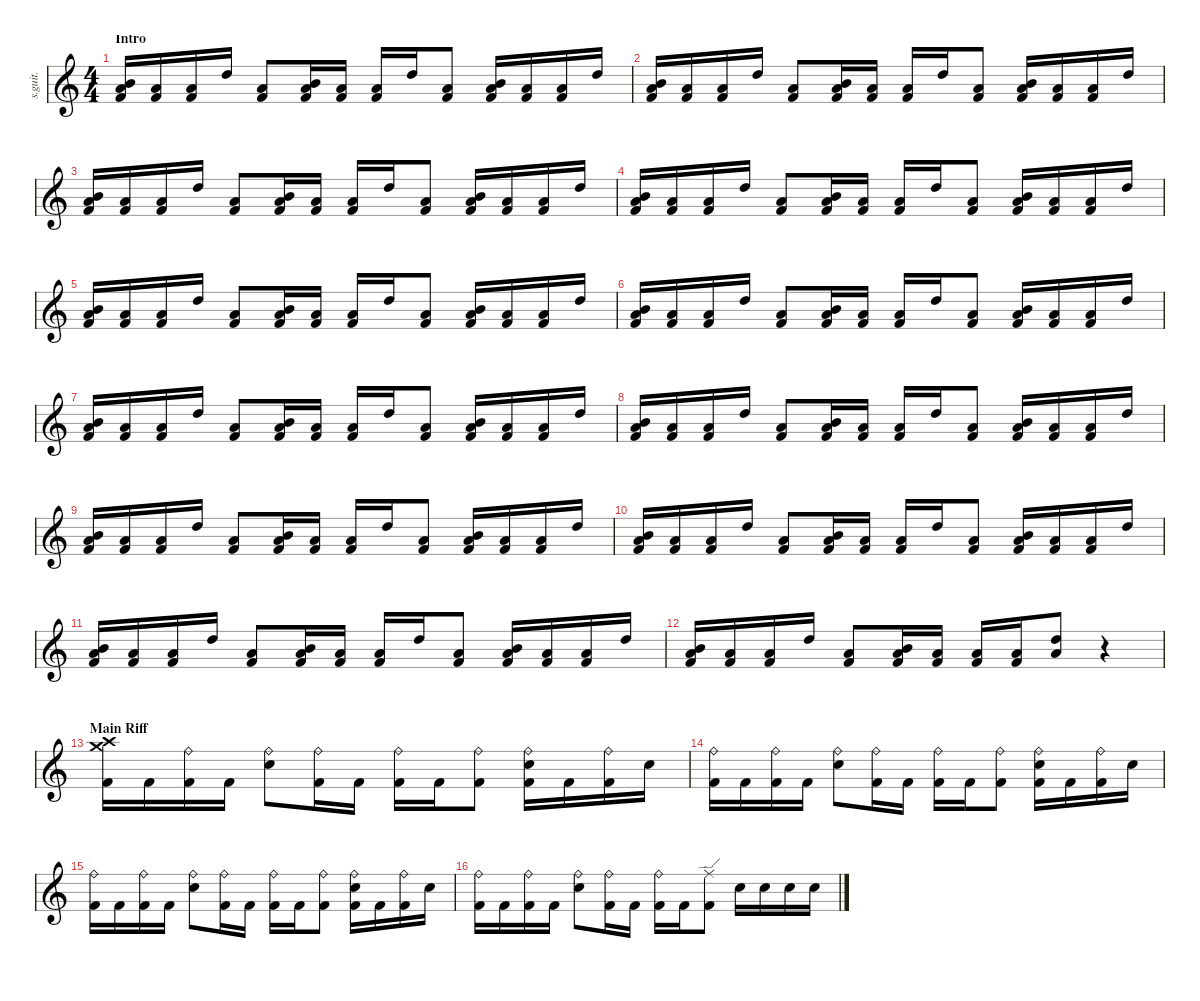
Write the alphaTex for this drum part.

\defaultSystemsLayout 4
\hideDynamics
\bracketExtendMode nobrackets
\track ("Mike Wengren" "s.guit.") {instrument percussion}
\staff {score}
\articulation defaults
\ts (4 4)
\beaming (8 2 2 2 2)
\section ("" "Intro")
\tempo (90 hide)
\clef g2
\ks c
("Kick (hit) 2" "Mid Tom (hit)" "Low Floor Tom (hit)").16{lyrics (0 "") lyrics (1 "") lyrics (2 "") lyrics (3 "") lyrics (4 "") dy ff} ("Kick (hit) 2" "Low Floor Tom (hit)").16{lyrics (0 "") lyrics (1 "") lyrics (2 "") lyrics (3 "") lyrics (4 "")} ("Kick (hit) 2" "Low Floor Tom (hit)").16{lyrics (0 "") lyrics (1 "") lyrics (2 "") lyrics (3 "") lyrics (4 "")} "High Tom (hit)".16{lyrics (0 "") lyrics (1 "") lyrics (2 "") lyrics (3 "") lyrics (4 "")} ("Kick (hit) 2" "Low Floor Tom (hit)").8{lyrics (0 "") lyrics (1 "") lyrics (2 "") lyrics (3 "") lyrics (4 "")} ("Kick (hit) 2" "Mid Tom (hit)" "Low Floor Tom (hit)").16{lyrics (0 "") lyrics (1 "") lyrics (2 "") lyrics (3 "") lyrics (4 "")} ("Kick (hit) 2" "Low Floor Tom (hit)").16{lyrics (0 "") lyrics (1 "") lyrics (2 "") lyrics (3 "") lyrics (4 "")} ("Kick (hit) 2" "Low Floor Tom (hit)").16{lyrics (0 "") lyrics (1 "") lyrics (2 "") lyrics (3 "") lyrics (4 "")} "High Tom (hit)".16{lyrics (0 "") lyrics (1 "") lyrics (2 "") lyrics (3 "") lyrics (4 "")} ("Kick (hit) 2" "Low Floor Tom (hit)").8{lyrics (0 "") lyrics (1 "") lyrics (2 "") lyrics (3 "") lyrics (4 "")} ("Kick (hit) 2" "Mid Tom (hit)" "Low Floor Tom (hit)").16{lyrics (0 "") lyrics (1 "") lyrics (2 "") lyrics (3 "") lyrics (4 "")} ("Kick (hit) 2" "Low Floor Tom (hit)").16{lyrics (0 "") lyrics (1 "") lyrics (2 "") lyrics (3 "") lyrics (4 "")} ("Kick (hit) 2" "Low Floor Tom (hit)").16{lyrics (0 "") lyrics (1 "") lyrics (2 "") lyrics (3 "") lyrics (4 "")} "High Tom (hit)".16{lyrics (0 "") lyrics (1 "") lyrics (2 "") lyrics (3 "") lyrics (4 "")} |
("Kick (hit) 2" "Mid Tom (hit)" "Low Floor Tom (hit)").16{lyrics (0 "") lyrics (1 "") lyrics (2 "") lyrics (3 "") lyrics (4 "")} ("Kick (hit) 2" "Low Floor Tom (hit)").16{lyrics (0 "") lyrics (1 "") lyrics (2 "") lyrics (3 "") lyrics (4 "")} ("Kick (hit) 2" "Low Floor Tom (hit)").16{lyrics (0 "") lyrics (1 "") lyrics (2 "") lyrics (3 "") lyrics (4 "")} "High Tom (hit)".16{lyrics (0 "") lyrics (1 "") lyrics (2 "") lyrics (3 "") lyrics (4 "")} ("Kick (hit) 2" "Low Floor Tom (hit)").8{lyrics (0 "") lyrics (1 "") lyrics (2 "") lyrics (3 "") lyrics (4 "")} ("Kick (hit) 2" "Mid Tom (hit)" "Low Floor Tom (hit)").16{lyrics (0 "") lyrics (1 "") lyrics (2 "") lyrics (3 "") lyrics (4 "")} ("Kick (hit) 2" "Low Floor Tom (hit)").16{lyrics (0 "") lyrics (1 "") lyrics (2 "") lyrics (3 "") lyrics (4 "")} ("Kick (hit) 2" "Low Floor Tom (hit)").16{lyrics (0 "") lyrics (1 "") lyrics (2 "") lyrics (3 "") lyrics (4 "")} "High Tom (hit)".16{lyrics (0 "") lyrics (1 "") lyrics (2 "") lyrics (3 "") lyrics (4 "")} ("Kick (hit) 2" "Low Floor Tom (hit)").8{lyrics (0 "") lyrics (1 "") lyrics (2 "") lyrics (3 "") lyrics (4 "")} ("Kick (hit) 2" "Mid Tom (hit)" "Low Floor Tom (hit)").16{lyrics (0 "") lyrics (1 "") lyrics (2 "") lyrics (3 "") lyrics (4 "")} ("Kick (hit) 2" "Low Floor Tom (hit)").16{lyrics (0 "") lyrics (1 "") lyrics (2 "") lyrics (3 "") lyrics (4 "")} ("Kick (hit) 2" "Low Floor Tom (hit)").16{lyrics (0 "") lyrics (1 "") lyrics (2 "") lyrics (3 "") lyrics (4 "")} "High Tom (hit)".16{lyrics (0 "") lyrics (1 "") lyrics (2 "") lyrics (3 "") lyrics (4 "")} |
("Kick (hit) 2" "Mid Tom (hit)" "Low Floor Tom (hit)").16{lyrics (0 "") lyrics (1 "") lyrics (2 "") lyrics (3 "") lyrics (4 "")} ("Kick (hit) 2" "Low Floor Tom (hit)").16{lyrics (0 "") lyrics (1 "") lyrics (2 "") lyrics (3 "") lyrics (4 "")} ("Kick (hit) 2" "Low Floor Tom (hit)").16{lyrics (0 "") lyrics (1 "") lyrics (2 "") lyrics (3 "") lyrics (4 "")} "High Tom (hit)".16{lyrics (0 "") lyrics (1 "") lyrics (2 "") lyrics (3 "") lyrics (4 "")} ("Kick (hit) 2" "Low Floor Tom (hit)").8{lyrics (0 "") lyrics (1 "") lyrics (2 "") lyrics (3 "") lyrics (4 "")} ("Kick (hit) 2" "Mid Tom (hit)" "Low Floor Tom (hit)").16{lyrics (0 "") lyrics (1 "") lyrics (2 "") lyrics (3 "") lyrics (4 "")} ("Kick (hit) 2" "Low Floor Tom (hit)").16{lyrics (0 "") lyrics (1 "") lyrics (2 "") lyrics (3 "") lyrics (4 "")} ("Kick (hit) 2" "Low Floor Tom (hit)").16{lyrics (0 "") lyrics (1 "") lyrics (2 "") lyrics (3 "") lyrics (4 "")} "High Tom (hit)".16{lyrics (0 "") lyrics (1 "") lyrics (2 "") lyrics (3 "") lyrics (4 "")} ("Kick (hit) 2" "Low Floor Tom (hit)").8{lyrics (0 "") lyrics (1 "") lyrics (2 "") lyrics (3 "") lyrics (4 "")} ("Kick (hit) 2" "Mid Tom (hit)" "Low Floor Tom (hit)").16{lyrics (0 "") lyrics (1 "") lyrics (2 "") lyrics (3 "") lyrics (4 "")} ("Kick (hit) 2" "Low Floor Tom (hit)").16{lyrics (0 "") lyrics (1 "") lyrics (2 "") lyrics (3 "") lyrics (4 "")} ("Kick (hit) 2" "Low Floor Tom (hit)").16{lyrics (0 "") lyrics (1 "") lyrics (2 "") lyrics (3 "") lyrics (4 "")} "High Tom (hit)".16{lyrics (0 "") lyrics (1 "") lyrics (2 "") lyrics (3 "") lyrics (4 "")} |
("Kick (hit) 2" "Mid Tom (hit)" "Low Floor Tom (hit)").16{lyrics (0 "") lyrics (1 "") lyrics (2 "") lyrics (3 "") lyrics (4 "")} ("Kick (hit) 2" "Low Floor Tom (hit)").16{lyrics (0 "") lyrics (1 "") lyrics (2 "") lyrics (3 "") lyrics (4 "")} ("Kick (hit) 2" "Low Floor Tom (hit)").16{lyrics (0 "") lyrics (1 "") lyrics (2 "") lyrics (3 "") lyrics (4 "")} "High Tom (hit)".16{lyrics (0 "") lyrics (1 "") lyrics (2 "") lyrics (3 "") lyrics (4 "")} ("Kick (hit) 2" "Low Floor Tom (hit)").8{lyrics (0 "") lyrics (1 "") lyrics (2 "") lyrics (3 "") lyrics (4 "")} ("Kick (hit) 2" "Mid Tom (hit)" "Low Floor Tom (hit)").16{lyrics (0 "") lyrics (1 "") lyrics (2 "") lyrics (3 "") lyrics (4 "")} ("Kick (hit) 2" "Low Floor Tom (hit)").16{lyrics (0 "") lyrics (1 "") lyrics (2 "") lyrics (3 "") lyrics (4 "")} ("Kick (hit) 2" "Low Floor Tom (hit)").16{lyrics (0 "") lyrics (1 "") lyrics (2 "") lyrics (3 "") lyrics (4 "")} "High Tom (hit)".16{lyrics (0 "") lyrics (1 "") lyrics (2 "") lyrics (3 "") lyrics (4 "")} ("Kick (hit) 2" "Low Floor Tom (hit)").8{lyrics (0 "") lyrics (1 "") lyrics (2 "") lyrics (3 "") lyrics (4 "")} ("Kick (hit) 2" "Mid Tom (hit)" "Low Floor Tom (hit)").16{lyrics (0 "") lyrics (1 "") lyrics (2 "") lyrics (3 "") lyrics (4 "")} ("Kick (hit) 2" "Low Floor Tom (hit)").16{lyrics (0 "") lyrics (1 "") lyrics (2 "") lyrics (3 "") lyrics (4 "")} ("Kick (hit) 2" "Low Floor Tom (hit)").16{lyrics (0 "") lyrics (1 "") lyrics (2 "") lyrics (3 "") lyrics (4 "")} "High Tom (hit)".16{lyrics (0 "") lyrics (1 "") lyrics (2 "") lyrics (3 "") lyrics (4 "")} |
("Kick (hit) 2" "Mid Tom (hit)" "Low Floor Tom (hit)").16{lyrics (0 "") lyrics (1 "") lyrics (2 "") lyrics (3 "") lyrics (4 "")} ("Kick (hit) 2" "Low Floor Tom (hit)").16{lyrics (0 "") lyrics (1 "") lyrics (2 "") lyrics (3 "") lyrics (4 "")} ("Kick (hit) 2" "Low Floor Tom (hit)").16{lyrics (0 "") lyrics (1 "") lyrics (2 "") lyrics (3 "") lyrics (4 "")} "High Tom (hit)".16{lyrics (0 "") lyrics (1 "") lyrics (2 "") lyrics (3 "") lyrics (4 "")} ("Kick (hit) 2" "Low Floor Tom (hit)").8{lyrics (0 "") lyrics (1 "") lyrics (2 "") lyrics (3 "") lyrics (4 "")} ("Kick (hit) 2" "Mid Tom (hit)" "Low Floor Tom (hit)").16{lyrics (0 "") lyrics (1 "") lyrics (2 "") lyrics (3 "") lyrics (4 "")} ("Kick (hit) 2" "Low Floor Tom (hit)").16{lyrics (0 "") lyrics (1 "") lyrics (2 "") lyrics (3 "") lyrics (4 "")} ("Kick (hit) 2" "Low Floor Tom (hit)").16{lyrics (0 "") lyrics (1 "") lyrics (2 "") lyrics (3 "") lyrics (4 "")} "High Tom (hit)".16{lyrics (0 "") lyrics (1 "") lyrics (2 "") lyrics (3 "") lyrics (4 "")} ("Kick (hit) 2" "Low Floor Tom (hit)").8{lyrics (0 "") lyrics (1 "") lyrics (2 "") lyrics (3 "") lyrics (4 "")} ("Kick (hit) 2" "Mid Tom (hit)" "Low Floor Tom (hit)").16{lyrics (0 "") lyrics (1 "") lyrics (2 "") lyrics (3 "") lyrics (4 "")} ("Kick (hit) 2" "Low Floor Tom (hit)").16{lyrics (0 "") lyrics (1 "") lyrics (2 "") lyrics (3 "") lyrics (4 "")} ("Kick (hit) 2" "Low Floor Tom (hit)").16{lyrics (0 "") lyrics (1 "") lyrics (2 "") lyrics (3 "") lyrics (4 "")} "High Tom (hit)".16{lyrics (0 "") lyrics (1 "") lyrics (2 "") lyrics (3 "") lyrics (4 "")} |
("Kick (hit) 2" "Mid Tom (hit)" "Low Floor Tom (hit)").16{lyrics (0 "") lyrics (1 "") lyrics (2 "") lyrics (3 "") lyrics (4 "")} ("Kick (hit) 2" "Low Floor Tom (hit)").16{lyrics (0 "") lyrics (1 "") lyrics (2 "") lyrics (3 "") lyrics (4 "")} ("Kick (hit) 2" "Low Floor Tom (hit)").16{lyrics (0 "") lyrics (1 "") lyrics (2 "") lyrics (3 "") lyrics (4 "")} "High Tom (hit)".16{lyrics (0 "") lyrics (1 "") lyrics (2 "") lyrics (3 "") lyrics (4 "")} ("Kick (hit) 2" "Low Floor Tom (hit)").8{lyrics (0 "") lyrics (1 "") lyrics (2 "") lyrics (3 "") lyrics (4 "")} ("Kick (hit) 2" "Mid Tom (hit)" "Low Floor Tom (hit)").16{lyrics (0 "") lyrics (1 "") lyrics (2 "") lyrics (3 "") lyrics (4 "")} ("Kick (hit) 2" "Low Floor Tom (hit)").16{lyrics (0 "") lyrics (1 "") lyrics (2 "") lyrics (3 "") lyrics (4 "")} ("Kick (hit) 2" "Low Floor Tom (hit)").16{lyrics (0 "") lyrics (1 "") lyrics (2 "") lyrics (3 "") lyrics (4 "")} "High Tom (hit)".16{lyrics (0 "") lyrics (1 "") lyrics (2 "") lyrics (3 "") lyrics (4 "")} ("Kick (hit) 2" "Low Floor Tom (hit)").8{lyrics (0 "") lyrics (1 "") lyrics (2 "") lyrics (3 "") lyrics (4 "")} ("Kick (hit) 2" "Mid Tom (hit)" "Low Floor Tom (hit)").16{lyrics (0 "") lyrics (1 "") lyrics (2 "") lyrics (3 "") lyrics (4 "")} ("Kick (hit) 2" "Low Floor Tom (hit)").16{lyrics (0 "") lyrics (1 "") lyrics (2 "") lyrics (3 "") lyrics (4 "")} ("Kick (hit) 2" "Low Floor Tom (hit)").16{lyrics (0 "") lyrics (1 "") lyrics (2 "") lyrics (3 "") lyrics (4 "")} "High Tom (hit)".16{lyrics (0 "") lyrics (1 "") lyrics (2 "") lyrics (3 "") lyrics (4 "")} |
("Kick (hit) 2" "Mid Tom (hit)" "Low Floor Tom (hit)").16{lyrics (0 "") lyrics (1 "") lyrics (2 "") lyrics (3 "") lyrics (4 "")} ("Kick (hit) 2" "Low Floor Tom (hit)").16{lyrics (0 "") lyrics (1 "") lyrics (2 "") lyrics (3 "") lyrics (4 "")} ("Kick (hit) 2" "Low Floor Tom (hit)").16{lyrics (0 "") lyrics (1 "") lyrics (2 "") lyrics (3 "") lyrics (4 "")} "High Tom (hit)".16{lyrics (0 "") lyrics (1 "") lyrics (2 "") lyrics (3 "") lyrics (4 "")} ("Kick (hit) 2" "Low Floor Tom (hit)").8{lyrics (0 "") lyrics (1 "") lyrics (2 "") lyrics (3 "") lyrics (4 "")} ("Kick (hit) 2" "Mid Tom (hit)" "Low Floor Tom (hit)").16{lyrics (0 "") lyrics (1 "") lyrics (2 "") lyrics (3 "") lyrics (4 "")} ("Kick (hit) 2" "Low Floor Tom (hit)").16{lyrics (0 "") lyrics (1 "") lyrics (2 "") lyrics (3 "") lyrics (4 "")} ("Kick (hit) 2" "Low Floor Tom (hit)").16{lyrics (0 "") lyrics (1 "") lyrics (2 "") lyrics (3 "") lyrics (4 "")} "High Tom (hit)".16{lyrics (0 "") lyrics (1 "") lyrics (2 "") lyrics (3 "") lyrics (4 "")} ("Kick (hit) 2" "Low Floor Tom (hit)").8{lyrics (0 "") lyrics (1 "") lyrics (2 "") lyrics (3 "") lyrics (4 "")} ("Kick (hit) 2" "Mid Tom (hit)" "Low Floor Tom (hit)").16{lyrics (0 "") lyrics (1 "") lyrics (2 "") lyrics (3 "") lyrics (4 "")} ("Kick (hit) 2" "Low Floor Tom (hit)").16{lyrics (0 "") lyrics (1 "") lyrics (2 "") lyrics (3 "") lyrics (4 "")} ("Kick (hit) 2" "Low Floor Tom (hit)").16{lyrics (0 "") lyrics (1 "") lyrics (2 "") lyrics (3 "") lyrics (4 "")} "High Tom (hit)".16{lyrics (0 "") lyrics (1 "") lyrics (2 "") lyrics (3 "") lyrics (4 "")} |
("Kick (hit) 2" "Mid Tom (hit)" "Low Floor Tom (hit)").16{lyrics (0 "") lyrics (1 "") lyrics (2 "") lyrics (3 "") lyrics (4 "")} ("Kick (hit) 2" "Low Floor Tom (hit)").16{lyrics (0 "") lyrics (1 "") lyrics (2 "") lyrics (3 "") lyrics (4 "")} ("Kick (hit) 2" "Low Floor Tom (hit)").16{lyrics (0 "") lyrics (1 "") lyrics (2 "") lyrics (3 "") lyrics (4 "")} "High Tom (hit)".16{lyrics (0 "") lyrics (1 "") lyrics (2 "") lyrics (3 "") lyrics (4 "")} ("Kick (hit) 2" "Low Floor Tom (hit)").8{lyrics (0 "") lyrics (1 "") lyrics (2 "") lyrics (3 "") lyrics (4 "")} ("Kick (hit) 2" "Mid Tom (hit)" "Low Floor Tom (hit)").16{lyrics (0 "") lyrics (1 "") lyrics (2 "") lyrics (3 "") lyrics (4 "")} ("Kick (hit) 2" "Low Floor Tom (hit)").16{lyrics (0 "") lyrics (1 "") lyrics (2 "") lyrics (3 "") lyrics (4 "")} ("Kick (hit) 2" "Low Floor Tom (hit)").16{lyrics (0 "") lyrics (1 "") lyrics (2 "") lyrics (3 "") lyrics (4 "")} "High Tom (hit)".16{lyrics (0 "") lyrics (1 "") lyrics (2 "") lyrics (3 "") lyrics (4 "")} ("Kick (hit) 2" "Low Floor Tom (hit)").8{lyrics (0 "") lyrics (1 "") lyrics (2 "") lyrics (3 "") lyrics (4 "")} ("Kick (hit) 2" "Mid Tom (hit)" "Low Floor Tom (hit)").16{lyrics (0 "") lyrics (1 "") lyrics (2 "") lyrics (3 "") lyrics (4 "")} ("Kick (hit) 2" "Low Floor Tom (hit)").16{lyrics (0 "") lyrics (1 "") lyrics (2 "") lyrics (3 "") lyrics (4 "")} ("Kick (hit) 2" "Low Floor Tom (hit)").16{lyrics (0 "") lyrics (1 "") lyrics (2 "") lyrics (3 "") lyrics (4 "")} "High Tom (hit)".16{lyrics (0 "") lyrics (1 "") lyrics (2 "") lyrics (3 "") lyrics (4 "")} |
("Kick (hit) 2" "Mid Tom (hit)" "Low Floor Tom (hit)").16{lyrics (0 "") lyrics (1 "") lyrics (2 "") lyrics (3 "") lyrics (4 "")} ("Kick (hit) 2" "Low Floor Tom (hit)").16{lyrics (0 "") lyrics (1 "") lyrics (2 "") lyrics (3 "") lyrics (4 "")} ("Kick (hit) 2" "Low Floor Tom (hit)").16{lyrics (0 "") lyrics (1 "") lyrics (2 "") lyrics (3 "") lyrics (4 "")} "High Tom (hit)".16{lyrics (0 "") lyrics (1 "") lyrics (2 "") lyrics (3 "") lyrics (4 "")} ("Kick (hit) 2" "Low Floor Tom (hit)").8{lyrics (0 "") lyrics (1 "") lyrics (2 "") lyrics (3 "") lyrics (4 "")} ("Kick (hit) 2" "Mid Tom (hit)" "Low Floor Tom (hit)").16{lyrics (0 "") lyrics (1 "") lyrics (2 "") lyrics (3 "") lyrics (4 "")} ("Kick (hit) 2" "Low Floor Tom (hit)").16{lyrics (0 "") lyrics (1 "") lyrics (2 "") lyrics (3 "") lyrics (4 "")} ("Kick (hit) 2" "Low Floor Tom (hit)").16{lyrics (0 "") lyrics (1 "") lyrics (2 "") lyrics (3 "") lyrics (4 "")} "High Tom (hit)".16{lyrics (0 "") lyrics (1 "") lyrics (2 "") lyrics (3 "") lyrics (4 "")} ("Kick (hit) 2" "Low Floor Tom (hit)").8{lyrics (0 "") lyrics (1 "") lyrics (2 "") lyrics (3 "") lyrics (4 "")} ("Kick (hit) 2" "Mid Tom (hit)" "Low Floor Tom (hit)").16{lyrics (0 "") lyrics (1 "") lyrics (2 "") lyrics (3 "") lyrics (4 "")} ("Kick (hit) 2" "Low Floor Tom (hit)").16{lyrics (0 "") lyrics (1 "") lyrics (2 "") lyrics (3 "") lyrics (4 "")} ("Kick (hit) 2" "Low Floor Tom (hit)").16{lyrics (0 "") lyrics (1 "") lyrics (2 "") lyrics (3 "") lyrics (4 "")} "High Tom (hit)".16{lyrics (0 "") lyrics (1 "") lyrics (2 "") lyrics (3 "") lyrics (4 "")} |
("Kick (hit) 2" "Mid Tom (hit)" "Low Floor Tom (hit)").16{lyrics (0 "") lyrics (1 "") lyrics (2 "") lyrics (3 "") lyrics (4 "")} ("Kick (hit) 2" "Low Floor Tom (hit)").16{lyrics (0 "") lyrics (1 "") lyrics (2 "") lyrics (3 "") lyrics (4 "")} ("Kick (hit) 2" "Low Floor Tom (hit)").16{lyrics (0 "") lyrics (1 "") lyrics (2 "") lyrics (3 "") lyrics (4 "")} "High Tom (hit)".16{lyrics (0 "") lyrics (1 "") lyrics (2 "") lyrics (3 "") lyrics (4 "")} ("Kick (hit) 2" "Low Floor Tom (hit)").8{lyrics (0 "") lyrics (1 "") lyrics (2 "") lyrics (3 "") lyrics (4 "")} ("Kick (hit) 2" "Mid Tom (hit)" "Low Floor Tom (hit)").16{lyrics (0 "") lyrics (1 "") lyrics (2 "") lyrics (3 "") lyrics (4 "")} ("Kick (hit) 2" "Low Floor Tom (hit)").16{lyrics (0 "") lyrics (1 "") lyrics (2 "") lyrics (3 "") lyrics (4 "")} ("Kick (hit) 2" "Low Floor Tom (hit)").16{lyrics (0 "") lyrics (1 "") lyrics (2 "") lyrics (3 "") lyrics (4 "")} "High Tom (hit)".16{lyrics (0 "") lyrics (1 "") lyrics (2 "") lyrics (3 "") lyrics (4 "")} ("Kick (hit) 2" "Low Floor Tom (hit)").8{lyrics (0 "") lyrics (1 "") lyrics (2 "") lyrics (3 "") lyrics (4 "")} ("Kick (hit) 2" "Mid Tom (hit)" "Low Floor Tom (hit)").16{lyrics (0 "") lyrics (1 "") lyrics (2 "") lyrics (3 "") lyrics (4 "")} ("Kick (hit) 2" "Low Floor Tom (hit)").16{lyrics (0 "") lyrics (1 "") lyrics (2 "") lyrics (3 "") lyrics (4 "")} ("Kick (hit) 2" "Low Floor Tom (hit)").16{lyrics (0 "") lyrics (1 "") lyrics (2 "") lyrics (3 "") lyrics (4 "")} "High Tom (hit)".16{lyrics (0 "") lyrics (1 "") lyrics (2 "") lyrics (3 "") lyrics (4 "")} |
("Kick (hit) 2" "Mid Tom (hit)" "Low Floor Tom (hit)").16{lyrics (0 "") lyrics (1 "") lyrics (2 "") lyrics (3 "") lyrics (4 "")} ("Kick (hit) 2" "Low Floor Tom (hit)").16{lyrics (0 "") lyrics (1 "") lyrics (2 "") lyrics (3 "") lyrics (4 "")} ("Kick (hit) 2" "Low Floor Tom (hit)").16{lyrics (0 "") lyrics (1 "") lyrics (2 "") lyrics (3 "") lyrics (4 "")} "High Tom (hit)".16{lyrics (0 "") lyrics (1 "") lyrics (2 "") lyrics (3 "") lyrics (4 "")} ("Kick (hit) 2" "Low Floor Tom (hit)").8{lyrics (0 "") lyrics (1 "") lyrics (2 "") lyrics (3 "") lyrics (4 "")} ("Kick (hit) 2" "Mid Tom (hit)" "Low Floor Tom (hit)").16{lyrics (0 "") lyrics (1 "") lyrics (2 "") lyrics (3 "") lyrics (4 "")} ("Kick (hit) 2" "Low Floor Tom (hit)").16{lyrics (0 "") lyrics (1 "") lyrics (2 "") lyrics (3 "") lyrics (4 "")} ("Kick (hit) 2" "Low Floor Tom (hit)").16{lyrics (0 "") lyrics (1 "") lyrics (2 "") lyrics (3 "") lyrics (4 "")} "High Tom (hit)".16{lyrics (0 "") lyrics (1 "") lyrics (2 "") lyrics (3 "") lyrics (4 "")} ("Kick (hit) 2" "Low Floor Tom (hit)").8{lyrics (0 "") lyrics (1 "") lyrics (2 "") lyrics (3 "") lyrics (4 "")} ("Kick (hit) 2" "Mid Tom (hit)" "Low Floor Tom (hit)").16{lyrics (0 "") lyrics (1 "") lyrics (2 "") lyrics (3 "") lyrics (4 "")} ("Kick (hit) 2" "Low Floor Tom (hit)").16{lyrics (0 "") lyrics (1 "") lyrics (2 "") lyrics (3 "") lyrics (4 "")} ("Kick (hit) 2" "Low Floor Tom (hit)").16{lyrics (0 "") lyrics (1 "") lyrics (2 "") lyrics (3 "") lyrics (4 "")} "High Tom (hit)".16{lyrics (0 "") lyrics (1 "") lyrics (2 "") lyrics (3 "") lyrics (4 "")} |
("Kick (hit) 2" "Mid Tom (hit)" "Low Floor Tom (hit)").16{lyrics (0 "") lyrics (1 "") lyrics (2 "") lyrics (3 "") lyrics (4 "")} ("Kick (hit) 2" "Low Floor Tom (hit)").16{lyrics (0 "") lyrics (1 "") lyrics (2 "") lyrics (3 "") lyrics (4 "")} ("Kick (hit) 2" "Low Floor Tom (hit)").16{lyrics (0 "") lyrics (1 "") lyrics (2 "") lyrics (3 "") lyrics (4 "")} "High Tom (hit)".16{lyrics (0 "") lyrics (1 "") lyrics (2 "") lyrics (3 "") lyrics (4 "")} ("Kick (hit) 2" "Low Floor Tom (hit)").8{lyrics (0 "") lyrics (1 "") lyrics (2 "") lyrics (3 "") lyrics (4 "")} ("Kick (hit) 2" "Mid Tom (hit)" "Low Floor Tom (hit)").16{lyrics (0 "") lyrics (1 "") lyrics (2 "") lyrics (3 "") lyrics (4 "")} ("Kick (hit) 2" "Low Floor Tom (hit)").16{lyrics (0 "") lyrics (1 "") lyrics (2 "") lyrics (3 "") lyrics (4 "")} ("Kick (hit) 2" "Low Floor Tom (hit)").16{lyrics (0 "") lyrics (1 "") lyrics (2 "") lyrics (3 "") lyrics (4 "")} ("Low Floor Tom (hit)" "Kick (hit) 2").16{lyrics (0 "") lyrics (1 "") lyrics (2 "") lyrics (3 "") lyrics (4 "")} ("Low Floor Tom (hit)" "High Tom (hit)").8{lyrics (0 "") lyrics (1 "") lyrics (2 "") lyrics (3 "") lyrics (4 "")} r.4 |
\section ("" "Main Riff")
("Crash high (hit)" "Kick (hit) 2" "Crash medium (hit)").16{lyrics (0 "") lyrics (1 "") lyrics (2 "") lyrics (3 "") lyrics (4 "")} "Kick (hit) 2".16{lyrics (0 "") lyrics (1 "") lyrics (2 "") lyrics (3 "") lyrics (4 "")} ("Ride (bell)" "Kick (hit) 2").16{lyrics (0 "") lyrics (1 "") lyrics (2 "") lyrics (3 "") lyrics (4 "")} "Kick (hit) 2".16{lyrics (0 "") lyrics (1 "") lyrics (2 "") lyrics (3 "") lyrics (4 "")} ("Ride (bell)" "Snare (hit) 2").8{lyrics (0 "") lyrics (1 "") lyrics (2 "") lyrics (3 "") lyrics (4 "")} ("Ride (bell)" "Kick (hit) 2").16{lyrics (0 "") lyrics (1 "") lyrics (2 "") lyrics (3 "") lyrics (4 "")} "Kick (hit) 2".16{lyrics (0 "") lyrics (1 "") lyrics (2 "") lyrics (3 "") lyrics (4 "")} ("Ride (bell)" "Kick (hit) 2").16{lyrics (0 "") lyrics (1 "") lyrics (2 "") lyrics (3 "") lyrics (4 "")} "Kick (hit) 2".16{lyrics (0 "") lyrics (1 "") lyrics (2 "") lyrics (3 "") lyrics (4 "")} ("Ride (bell)" "Kick (hit) 2").8{lyrics (0 "") lyrics (1 "") lyrics (2 "") lyrics (3 "") lyrics (4 "")} ("Ride (bell)" "Kick (hit) 2" "Snare (hit) 2").16{lyrics (0 "") lyrics (1 "") lyrics (2 "") lyrics (3 "") lyrics (4 "")} "Kick (hit) 2".16{lyrics (0 "") lyrics (1 "") lyrics (2 "") lyrics (3 "") lyrics (4 "")} ("Ride (bell)" "Kick (hit) 2").16{lyrics (0 "") lyrics (1 "") lyrics (2 "") lyrics (3 "") lyrics (4 "")} "Snare (hit) 2".16{lyrics (0 "") lyrics (1 "") lyrics (2 "") lyrics (3 "") lyrics (4 "")} |
("Kick (hit) 2" "Ride (bell)").16{lyrics (0 "") lyrics (1 "") lyrics (2 "") lyrics (3 "") lyrics (4 "")} "Kick (hit) 2".16{lyrics (0 "") lyrics (1 "") lyrics (2 "") lyrics (3 "") lyrics (4 "")} ("Ride (bell)" "Kick (hit) 2").16{lyrics (0 "") lyrics (1 "") lyrics (2 "") lyrics (3 "") lyrics (4 "")} "Kick (hit) 2".16{lyrics (0 "") lyrics (1 "") lyrics (2 "") lyrics (3 "") lyrics (4 "")} ("Ride (bell)" "Snare (hit) 2").8{lyrics (0 "") lyrics (1 "") lyrics (2 "") lyrics (3 "") lyrics (4 "")} ("Ride (bell)" "Kick (hit) 2").16{lyrics (0 "") lyrics (1 "") lyrics (2 "") lyrics (3 "") lyrics (4 "")} "Kick (hit) 2".16{lyrics (0 "") lyrics (1 "") lyrics (2 "") lyrics (3 "") lyrics (4 "")} ("Ride (bell)" "Kick (hit) 2").16{lyrics (0 "") lyrics (1 "") lyrics (2 "") lyrics (3 "") lyrics (4 "")} "Kick (hit) 2".16{lyrics (0 "") lyrics (1 "") lyrics (2 "") lyrics (3 "") lyrics (4 "")} ("Ride (bell)" "Kick (hit) 2").8{lyrics (0 "") lyrics (1 "") lyrics (2 "") lyrics (3 "") lyrics (4 "")} ("Ride (bell)" "Kick (hit) 2" "Snare (hit) 2").16{lyrics (0 "") lyrics (1 "") lyrics (2 "") lyrics (3 "") lyrics (4 "")} "Kick (hit) 2".16{lyrics (0 "") lyrics (1 "") lyrics (2 "") lyrics (3 "") lyrics (4 "")} ("Ride (bell)" "Kick (hit) 2").16{lyrics (0 "") lyrics (1 "") lyrics (2 "") lyrics (3 "") lyrics (4 "")} "Snare (hit) 2".16{lyrics (0 "") lyrics (1 "") lyrics (2 "") lyrics (3 "") lyrics (4 "")} |
("Kick (hit) 2" "Ride (bell)").16{lyrics (0 "") lyrics (1 "") lyrics (2 "") lyrics (3 "") lyrics (4 "")} "Kick (hit) 2".16{lyrics (0 "") lyrics (1 "") lyrics (2 "") lyrics (3 "") lyrics (4 "")} ("Ride (bell)" "Kick (hit) 2").16{lyrics (0 "") lyrics (1 "") lyrics (2 "") lyrics (3 "") lyrics (4 "")} "Kick (hit) 2".16{lyrics (0 "") lyrics (1 "") lyrics (2 "") lyrics (3 "") lyrics (4 "")} ("Ride (bell)" "Snare (hit) 2").8{lyrics (0 "") lyrics (1 "") lyrics (2 "") lyrics (3 "") lyrics (4 "")} ("Ride (bell)" "Kick (hit) 2").16{lyrics (0 "") lyrics (1 "") lyrics (2 "") lyrics (3 "") lyrics (4 "")} "Kick (hit) 2".16{lyrics (0 "") lyrics (1 "") lyrics (2 "") lyrics (3 "") lyrics (4 "")} ("Ride (bell)" "Kick (hit) 2").16{lyrics (0 "") lyrics (1 "") lyrics (2 "") lyrics (3 "") lyrics (4 "")} "Kick (hit) 2".16{lyrics (0 "") lyrics (1 "") lyrics (2 "") lyrics (3 "") lyrics (4 "")} ("Ride (bell)" "Kick (hit) 2").8{lyrics (0 "") lyrics (1 "") lyrics (2 "") lyrics (3 "") lyrics (4 "")} ("Ride (bell)" "Kick (hit) 2" "Snare (hit) 2").16{lyrics (0 "") lyrics (1 "") lyrics (2 "") lyrics (3 "") lyrics (4 "")} "Kick (hit) 2".16{lyrics (0 "") lyrics (1 "") lyrics (2 "") lyrics (3 "") lyrics (4 "")} ("Ride (bell)" "Kick (hit) 2").16{lyrics (0 "") lyrics (1 "") lyrics (2 "") lyrics (3 "") lyrics (4 "")} "Snare (hit) 2".16{lyrics (0 "") lyrics (1 "") lyrics (2 "") lyrics (3 "") lyrics (4 "")} |
("Kick (hit) 2" "Ride (bell)").16{lyrics (0 "") lyrics (1 "") lyrics (2 "") lyrics (3 "") lyrics (4 "")} "Kick (hit) 2".16{lyrics (0 "") lyrics (1 "") lyrics (2 "") lyrics (3 "") lyrics (4 "")} ("Ride (bell)" "Kick (hit) 2").16{lyrics (0 "") lyrics (1 "") lyrics (2 "") lyrics (3 "") lyrics (4 "")} "Kick (hit) 2".16{lyrics (0 "") lyrics (1 "") lyrics (2 "") lyrics (3 "") lyrics (4 "")} ("Ride (bell)" "Snare (hit) 2").8{lyrics (0 "") lyrics (1 "") lyrics (2 "") lyrics (3 "") lyrics (4 "")} ("Ride (bell)" "Kick (hit) 2").16{lyrics (0 "") lyrics (1 "") lyrics (2 "") lyrics (3 "") lyrics (4 "")} "Kick (hit) 2".16{lyrics (0 "") lyrics (1 "") lyrics (2 "") lyrics (3 "") lyrics (4 "")} ("Ride (bell)" "Kick (hit) 2").16{lyrics (0 "") lyrics (1 "") lyrics (2 "") lyrics (3 "") lyrics (4 "")} "Kick (hit) 2".16{lyrics (0 "") lyrics (1 "") lyrics (2 "") lyrics (3 "") lyrics (4 "")} ("Kick (hit) 2" "Ride (edge)").8{lyrics (0 "") lyrics (1 "") lyrics (2 "") lyrics (3 "") lyrics (4 "")} "Snare (hit) 2".16{lyrics (0 "") lyrics (1 "") lyrics (2 "") lyrics (3 "") lyrics (4 "")} "Snare (hit) 2".16{lyrics (0 "") lyrics (1 "") lyrics (2 "") lyrics (3 "") lyrics (4 "")} "Snare (hit) 2".16{lyrics (0 "") lyrics (1 "") lyrics (2 "") lyrics (3 "") lyrics (4 "")} "Snare (hit) 2".16{lyrics (0 "") lyrics (1 "") lyrics (2 "") lyrics (3 "") lyrics (4 "")}
